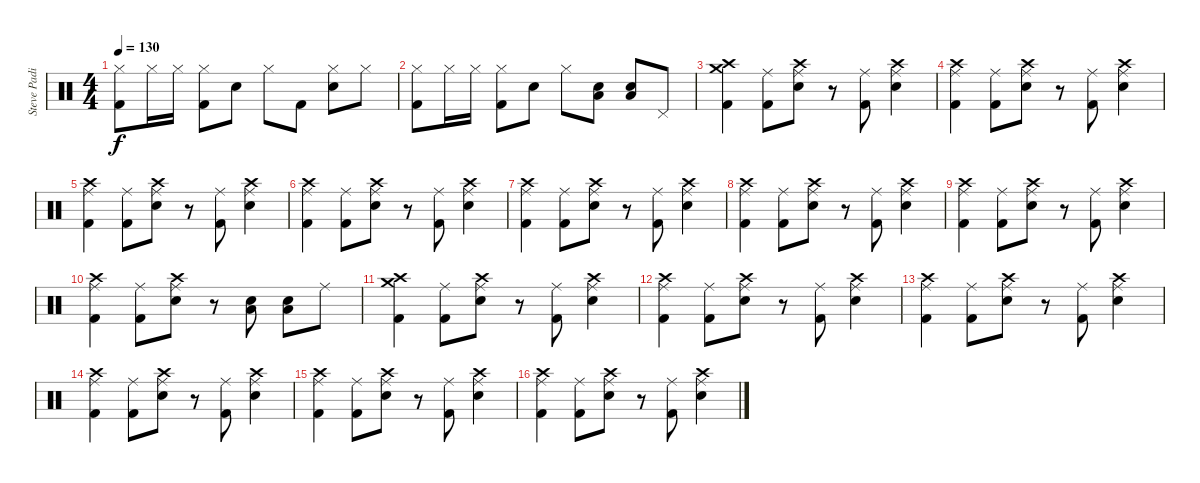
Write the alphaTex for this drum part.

\track ("Steve Padin" "Steve Padi") {instrument percussion}
\staff {score}
\articulation defaults
\ts (4 4)
\tempo 130
\clef neutral
\ks c
("Hi-Hat (closed)" "Kick (hit) 2").8{dy f} "Hi-Hat (closed)".16 "Hi-Hat (closed)".16 ("Hi-Hat (closed)" "Kick (hit) 2").8 "Electric Snare (hit)".8 "Hi-Hat (closed)".8 "Kick (hit) 2".8 ("Hi-Hat (closed)" "Electric Snare (hit)").8 "Hi-Hat (closed)".8 |
("Hi-Hat (closed)" "Kick (hit) 2").8 "Hi-Hat (closed)".16 "Hi-Hat (closed)".16 ("Hi-Hat (closed)" "Kick (hit) 2").8 "Electric Snare (hit)".8 "Hi-Hat (closed)".8 ("Electric Snare (hit)" "Low Floor Tom (hit)").8 ("Electric Snare (hit)" "Low Floor Tom (hit)").8 "Pedal Hi-Hat (hit)".8 |
("Crash high (hit)" "Crash medium (hit)" "Kick (hit) 2").4 ("Ride (middle)" "Kick (hit) 2").8 ("Crash high (hit)" "Ride (middle)" "Electric Snare (hit)").8 r.8 ("Ride (middle)" "Kick (hit) 2").8 ("Crash high (hit)" "Ride (middle)" "Electric Snare (hit)").4 |
("Crash high (hit)" "Ride (middle)" "Kick (hit) 2").4 ("Ride (middle)" "Kick (hit) 2").8 ("Crash high (hit)" "Ride (middle)" "Electric Snare (hit)").8 r.8 ("Ride (middle)" "Kick (hit) 2").8 ("Crash high (hit)" "Ride (middle)" "Electric Snare (hit)").4 |
("Crash high (hit)" "Ride (middle)" "Kick (hit) 2").4 ("Ride (middle)" "Kick (hit) 2").8 ("Crash high (hit)" "Ride (middle)" "Electric Snare (hit)").8 r.8 ("Ride (middle)" "Kick (hit) 2").8 ("Crash high (hit)" "Ride (middle)" "Electric Snare (hit)").4 |
("Crash high (hit)" "Ride (middle)" "Kick (hit) 2").4 ("Ride (middle)" "Kick (hit) 2").8 ("Crash high (hit)" "Ride (middle)" "Electric Snare (hit)").8 r.8 ("Ride (middle)" "Kick (hit) 2").8 ("Crash high (hit)" "Ride (middle)" "Electric Snare (hit)").4 |
("Crash high (hit)" "Ride (middle)" "Kick (hit) 2").4 ("Ride (middle)" "Kick (hit) 2").8 ("Crash high (hit)" "Ride (middle)" "Electric Snare (hit)").8 r.8 ("Ride (middle)" "Kick (hit) 2").8 ("Crash high (hit)" "Ride (middle)" "Electric Snare (hit)").4 |
("Crash high (hit)" "Ride (middle)" "Kick (hit) 2").4 ("Ride (middle)" "Kick (hit) 2").8 ("Crash high (hit)" "Ride (middle)" "Electric Snare (hit)").8 r.8 ("Ride (middle)" "Kick (hit) 2").8 ("Crash high (hit)" "Ride (middle)" "Electric Snare (hit)").4 |
("Crash high (hit)" "Ride (middle)" "Kick (hit) 2").4 ("Ride (middle)" "Kick (hit) 2").8 ("Crash high (hit)" "Ride (middle)" "Electric Snare (hit)").8 r.8 ("Ride (middle)" "Kick (hit) 2").8 ("Crash high (hit)" "Ride (middle)" "Electric Snare (hit)").4 |
("Crash high (hit)" "Ride (middle)" "Kick (hit) 2").4 ("Ride (middle)" "Kick (hit) 2").8 ("Crash high (hit)" "Ride (middle)" "Electric Snare (hit)").8 r.8 ("Electric Snare (hit)" "Low Floor Tom (hit)").8 ("Electric Snare (hit)" "Low Floor Tom (hit)").8 "Ride (middle)".8 |
("Crash high (hit)" "Crash medium (hit)" "Kick (hit) 2").4 ("Ride (middle)" "Kick (hit) 2").8 ("Crash high (hit)" "Ride (middle)" "Electric Snare (hit)").8 r.8 ("Ride (middle)" "Kick (hit) 2").8 ("Crash high (hit)" "Ride (middle)" "Electric Snare (hit)").4 |
("Crash high (hit)" "Ride (middle)" "Kick (hit) 2").4 ("Ride (middle)" "Kick (hit) 2").8 ("Crash high (hit)" "Ride (middle)" "Electric Snare (hit)").8 r.8 ("Ride (middle)" "Kick (hit) 2").8 ("Crash high (hit)" "Ride (middle)" "Electric Snare (hit)").4 |
("Crash high (hit)" "Ride (middle)" "Kick (hit) 2").4 ("Ride (middle)" "Kick (hit) 2").8 ("Crash high (hit)" "Ride (middle)" "Electric Snare (hit)").8 r.8 ("Ride (middle)" "Kick (hit) 2").8 ("Crash high (hit)" "Ride (middle)" "Electric Snare (hit)").4 |
("Crash high (hit)" "Ride (middle)" "Kick (hit) 2").4 ("Ride (middle)" "Kick (hit) 2").8 ("Crash high (hit)" "Ride (middle)" "Electric Snare (hit)").8 r.8 ("Ride (middle)" "Kick (hit) 2").8 ("Crash high (hit)" "Ride (middle)" "Electric Snare (hit)").4 |
("Crash high (hit)" "Ride (middle)" "Kick (hit) 2").4 ("Ride (middle)" "Kick (hit) 2").8 ("Crash high (hit)" "Ride (middle)" "Electric Snare (hit)").8 r.8 ("Ride (middle)" "Kick (hit) 2").8 ("Crash high (hit)" "Ride (middle)" "Electric Snare (hit)").4 |
("Crash high (hit)" "Ride (middle)" "Kick (hit) 2").4 ("Ride (middle)" "Kick (hit) 2").8 ("Crash high (hit)" "Ride (middle)" "Electric Snare (hit)").8 r.8 ("Ride (middle)" "Kick (hit) 2").8 ("Crash high (hit)" "Ride (middle)" "Electric Snare (hit)").4
